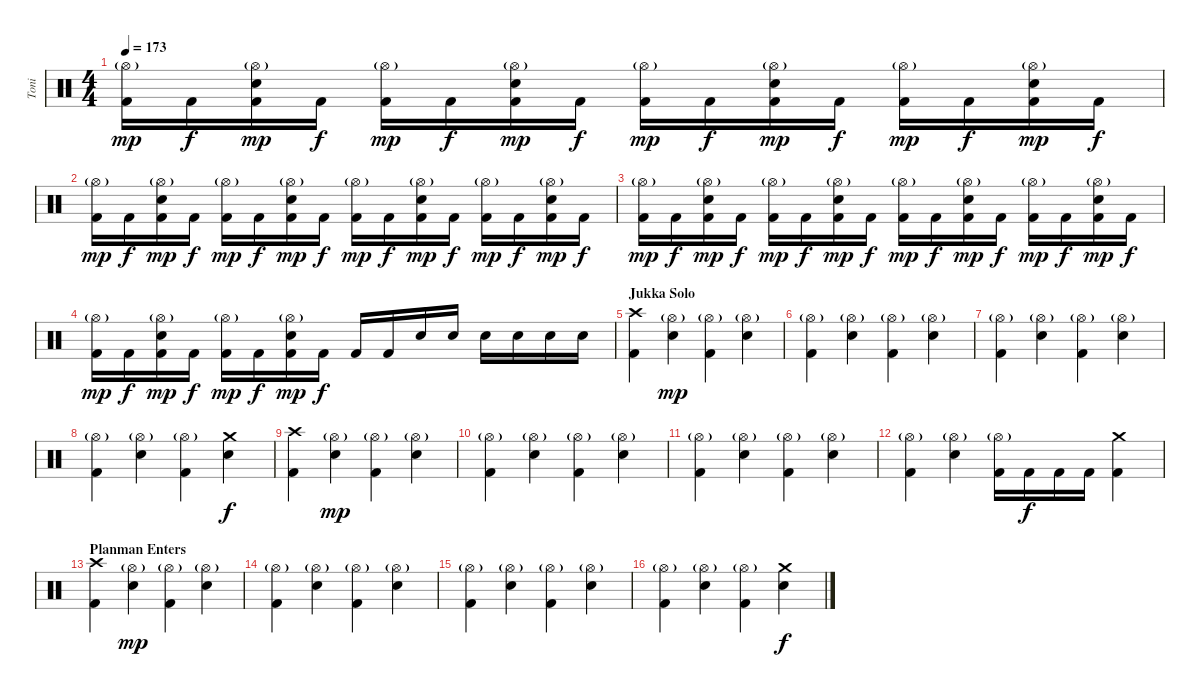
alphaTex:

\track ("Toni" "Toni") {instrument percussion}
\staff {score}
\articulation defaults
\ts (4 4)
\tempo 173
\clef neutral
\ks c
("Hi-Hat (open)"{g} "Kick (hit) 2").16{dy mp} "Kick (hit) 2".16{dy f} ("Hi-Hat (open)"{g} "Electric Snare (hit)" "Kick (hit) 2").16{dy mp} "Kick (hit) 2".16{dy f} ("Hi-Hat (open)"{g} "Kick (hit) 2").16{dy mp} "Kick (hit) 2".16{dy f} ("Hi-Hat (open)"{g} "Electric Snare (hit)" "Kick (hit) 2").16{dy mp} "Kick (hit) 2".16{dy f} ("Hi-Hat (open)"{g} "Kick (hit) 2").16{dy mp} "Kick (hit) 2".16{dy f} ("Hi-Hat (open)"{g} "Electric Snare (hit)" "Kick (hit) 2").16{dy mp} "Kick (hit) 2".16{dy f} ("Hi-Hat (open)"{g} "Kick (hit) 2").16{dy mp} "Kick (hit) 2".16{dy f} ("Hi-Hat (open)"{g} "Electric Snare (hit)" "Kick (hit) 2").16{dy mp} "Kick (hit) 2".16{dy f} |
("Hi-Hat (open)"{g} "Kick (hit) 2").16{dy mp} "Kick (hit) 2".16{dy f} ("Hi-Hat (open)"{g} "Electric Snare (hit)" "Kick (hit) 2").16{dy mp} "Kick (hit) 2".16{dy f} ("Hi-Hat (open)"{g} "Kick (hit) 2").16{dy mp} "Kick (hit) 2".16{dy f} ("Hi-Hat (open)"{g} "Electric Snare (hit)" "Kick (hit) 2").16{dy mp} "Kick (hit) 2".16{dy f} ("Hi-Hat (open)"{g} "Kick (hit) 2").16{dy mp} "Kick (hit) 2".16{dy f} ("Hi-Hat (open)"{g} "Electric Snare (hit)" "Kick (hit) 2").16{dy mp} "Kick (hit) 2".16{dy f} ("Hi-Hat (open)"{g} "Kick (hit) 2").16{dy mp} "Kick (hit) 2".16{dy f} ("Hi-Hat (open)"{g} "Electric Snare (hit)" "Kick (hit) 2").16{dy mp} "Kick (hit) 2".16{dy f} |
("Hi-Hat (open)"{g} "Kick (hit) 2").16{dy mp} "Kick (hit) 2".16{dy f} ("Hi-Hat (open)"{g} "Electric Snare (hit)" "Kick (hit) 2").16{dy mp} "Kick (hit) 2".16{dy f} ("Hi-Hat (open)"{g} "Kick (hit) 2").16{dy mp} "Kick (hit) 2".16{dy f} ("Hi-Hat (open)"{g} "Electric Snare (hit)" "Kick (hit) 2").16{dy mp} "Kick (hit) 2".16{dy f} ("Hi-Hat (open)"{g} "Kick (hit) 2").16{dy mp} "Kick (hit) 2".16{dy f} ("Hi-Hat (open)"{g} "Electric Snare (hit)" "Kick (hit) 2").16{dy mp} "Kick (hit) 2".16{dy f} ("Hi-Hat (open)"{g} "Kick (hit) 2").16{dy mp} "Kick (hit) 2".16{dy f} ("Hi-Hat (open)"{g} "Electric Snare (hit)" "Kick (hit) 2").16{dy mp} "Kick (hit) 2".16{dy f} |
("Hi-Hat (open)"{g} "Kick (hit) 2").16{dy mp} "Kick (hit) 2".16{dy f} ("Hi-Hat (open)"{g} "Electric Snare (hit)" "Kick (hit) 2").16{dy mp} "Kick (hit) 2".16{dy f} ("Hi-Hat (open)"{g} "Kick (hit) 2").16{dy mp} "Kick (hit) 2".16{dy f} ("Hi-Hat (open)"{g} "Electric Snare (hit)" "Kick (hit) 2").16{dy mp} "Kick (hit) 2".16{dy f} "Kick (hit) 2".16 "Kick (hit) 2".16 "Electric Snare (hit)".16 "Electric Snare (hit)".16 "Electric Snare (hit)".16 "Electric Snare (hit)".16 "Electric Snare (hit)".16 "Electric Snare (hit)".16 |
\section ("" "Jukka Solo")
("Crash high (hit)" "Kick (hit) 2").4 ("Hi-Hat (open)"{g} "Electric Snare (hit)").4{dy mp} ("Hi-Hat (open)"{g} "Kick (hit) 2").4 ("Hi-Hat (open)"{g} "Electric Snare (hit)").4 |
("Hi-Hat (open)"{g} "Kick (hit) 2").4 ("Hi-Hat (open)"{g} "Electric Snare (hit)").4 ("Hi-Hat (open)"{g} "Kick (hit) 2").4 ("Hi-Hat (open)"{g} "Electric Snare (hit)").4 |
("Hi-Hat (open)"{g} "Kick (hit) 2").4 ("Hi-Hat (open)"{g} "Electric Snare (hit)").4 ("Hi-Hat (open)"{g} "Kick (hit) 2").4 ("Hi-Hat (open)"{g} "Electric Snare (hit)").4 |
("Hi-Hat (open)"{g} "Kick (hit) 2").4 ("Hi-Hat (open)"{g} "Electric Snare (hit)").4 ("Hi-Hat (open)"{g} "Kick (hit) 2").4 ("Crash medium (hit)" "Electric Snare (hit)").4{dy f} |
("Crash high (hit)" "Kick (hit) 2").4 ("Hi-Hat (open)"{g} "Electric Snare (hit)").4{dy mp} ("Hi-Hat (open)"{g} "Kick (hit) 2").4 ("Hi-Hat (open)"{g} "Electric Snare (hit)").4 |
("Hi-Hat (open)"{g} "Kick (hit) 2").4 ("Hi-Hat (open)"{g} "Electric Snare (hit)").4 ("Hi-Hat (open)"{g} "Kick (hit) 2").4 ("Hi-Hat (open)"{g} "Electric Snare (hit)").4 |
("Hi-Hat (open)"{g} "Kick (hit) 2").4 ("Hi-Hat (open)"{g} "Electric Snare (hit)").4 ("Hi-Hat (open)"{g} "Kick (hit) 2").4 ("Hi-Hat (open)"{g} "Electric Snare (hit)").4 |
("Hi-Hat (open)"{g} "Kick (hit) 2").4 ("Hi-Hat (open)"{g} "Electric Snare (hit)").4 ("Hi-Hat (open)"{g} "Kick (hit) 2").16 "Kick (hit) 2".16{dy f} "Kick (hit) 2".16 "Kick (hit) 2".16 ("Crash medium (hit)" "Kick (hit) 2").4 |
\section ("" "Planman Enters")
("Crash high (hit)" "Kick (hit) 2").4 ("Hi-Hat (open)"{g} "Electric Snare (hit)").4{dy mp} ("Hi-Hat (open)"{g} "Kick (hit) 2").4 ("Hi-Hat (open)"{g} "Electric Snare (hit)").4 |
("Hi-Hat (open)"{g} "Kick (hit) 2").4 ("Hi-Hat (open)"{g} "Electric Snare (hit)").4 ("Hi-Hat (open)"{g} "Kick (hit) 2").4 ("Hi-Hat (open)"{g} "Electric Snare (hit)").4 |
("Hi-Hat (open)"{g} "Kick (hit) 2").4 ("Hi-Hat (open)"{g} "Electric Snare (hit)").4 ("Hi-Hat (open)"{g} "Kick (hit) 2").4 ("Hi-Hat (open)"{g} "Electric Snare (hit)").4 |
("Hi-Hat (open)"{g} "Kick (hit) 2").4 ("Hi-Hat (open)"{g} "Electric Snare (hit)").4 ("Hi-Hat (open)"{g} "Kick (hit) 2").4 ("Crash medium (hit)" "Electric Snare (hit)").4{dy f}
